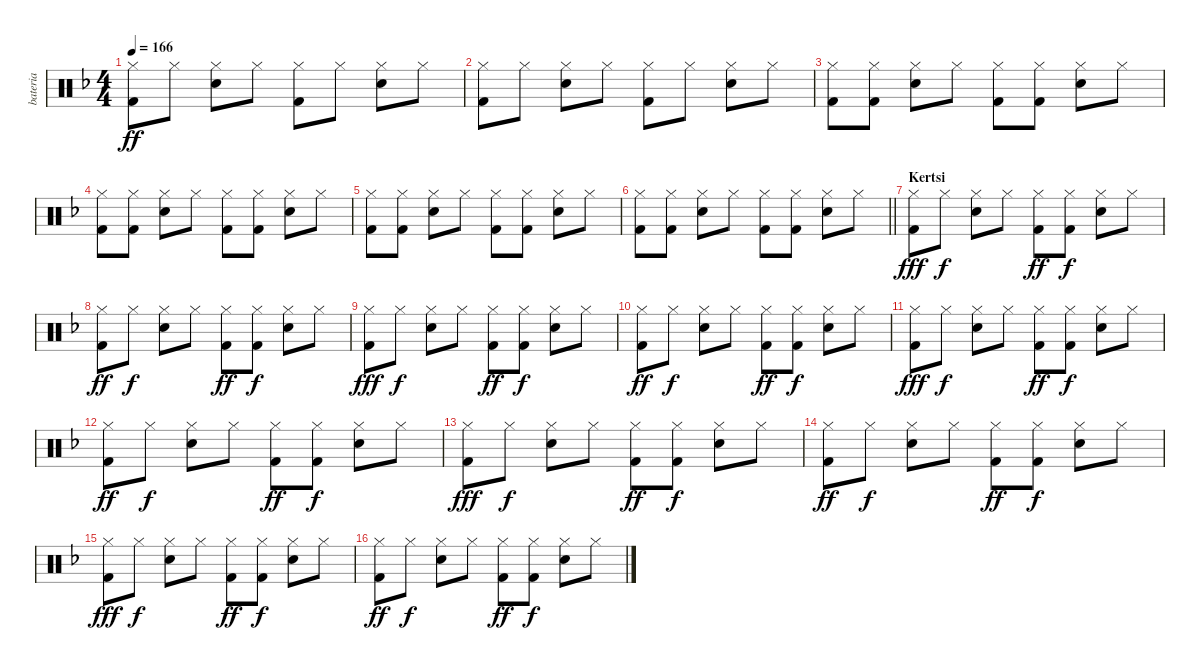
\track ("bateria" "bateria") {instrument percussion}
\staff {score}
\articulation defaults
\ts (4 4)
\tempo 166
\clef neutral
\ks f
("Hi-Hat (closed)" "Kick (hit) 2").8{dy ff} "Hi-Hat (closed)".8 ("Hi-Hat (closed)" "Electric Snare (hit)").8 "Hi-Hat (closed)".8 ("Hi-Hat (closed)" "Kick (hit) 2").8 "Hi-Hat (closed)".8 ("Hi-Hat (closed)" "Electric Snare (hit)").8 "Hi-Hat (closed)".8 |
("Hi-Hat (closed)" "Kick (hit) 2").8 "Hi-Hat (closed)".8 ("Hi-Hat (closed)" "Electric Snare (hit)").8 "Hi-Hat (closed)".8 ("Hi-Hat (closed)" "Kick (hit) 2").8 "Hi-Hat (closed)".8 ("Hi-Hat (closed)" "Electric Snare (hit)").8 "Hi-Hat (closed)".8 |
("Hi-Hat (closed)" "Kick (hit) 2").8 ("Hi-Hat (closed)" "Kick (hit) 2").8 ("Hi-Hat (closed)" "Electric Snare (hit)").8 "Hi-Hat (closed)".8 ("Hi-Hat (closed)" "Kick (hit) 2").8 ("Hi-Hat (closed)" "Kick (hit) 2").8 ("Hi-Hat (closed)" "Electric Snare (hit)").8 "Hi-Hat (closed)".8 |
("Hi-Hat (closed)" "Kick (hit) 2").8 ("Hi-Hat (closed)" "Kick (hit) 2").8 ("Hi-Hat (closed)" "Electric Snare (hit)").8 "Hi-Hat (closed)".8 ("Hi-Hat (closed)" "Kick (hit) 2").8 ("Hi-Hat (closed)" "Kick (hit) 2").8 ("Hi-Hat (closed)" "Electric Snare (hit)").8 "Hi-Hat (closed)".8 |
("Hi-Hat (closed)" "Kick (hit) 2").8 ("Hi-Hat (closed)" "Kick (hit) 2").8 ("Hi-Hat (closed)" "Electric Snare (hit)").8 "Hi-Hat (closed)".8 ("Hi-Hat (closed)" "Kick (hit) 2").8 ("Hi-Hat (closed)" "Kick (hit) 2").8 ("Hi-Hat (closed)" "Electric Snare (hit)").8 "Hi-Hat (closed)".8 |
\barLineRight lightlight
("Hi-Hat (closed)" "Kick (hit) 2").8 ("Hi-Hat (closed)" "Kick (hit) 2").8 ("Hi-Hat (closed)" "Electric Snare (hit)").8 "Hi-Hat (closed)".8 ("Hi-Hat (closed)" "Kick (hit) 2").8 ("Hi-Hat (closed)" "Kick (hit) 2").8 ("Hi-Hat (closed)" "Electric Snare (hit)").8 "Hi-Hat (closed)".8 |
\section ("" "Kertsi")
("Hi-Hat (closed)" "Kick (hit) 2").8{dy fff} "Hi-Hat (closed)".8{dy f} ("Hi-Hat (closed)" "Electric Snare (hit)").8 "Hi-Hat (closed)".8 ("Hi-Hat (closed)" "Kick (hit) 2").8{dy ff} ("Kick (hit) 2" "Hi-Hat (closed)").8{dy f} ("Hi-Hat (closed)" "Electric Snare (hit)").8 "Hi-Hat (closed)".8 |
("Hi-Hat (closed)" "Kick (hit) 2").8{dy ff} "Hi-Hat (closed)".8{dy f} ("Hi-Hat (closed)" "Electric Snare (hit)").8 "Hi-Hat (closed)".8 ("Hi-Hat (closed)" "Kick (hit) 2").8{dy ff} ("Hi-Hat (closed)" "Kick (hit) 2").8{dy f} ("Hi-Hat (closed)" "Electric Snare (hit)").8 "Hi-Hat (closed)".8 |
("Hi-Hat (closed)" "Kick (hit) 2").8{dy fff} "Hi-Hat (closed)".8{dy f} ("Hi-Hat (closed)" "Electric Snare (hit)").8 "Hi-Hat (closed)".8 ("Hi-Hat (closed)" "Kick (hit) 2").8{dy ff} ("Kick (hit) 2" "Hi-Hat (closed)").8{dy f} ("Hi-Hat (closed)" "Electric Snare (hit)").8 "Hi-Hat (closed)".8 |
("Hi-Hat (closed)" "Kick (hit) 2").8{dy ff} "Hi-Hat (closed)".8{dy f} ("Hi-Hat (closed)" "Electric Snare (hit)").8 "Hi-Hat (closed)".8 ("Hi-Hat (closed)" "Kick (hit) 2").8{dy ff} ("Hi-Hat (closed)" "Kick (hit) 2").8{dy f} ("Hi-Hat (closed)" "Electric Snare (hit)").8 "Hi-Hat (closed)".8 |
("Hi-Hat (closed)" "Kick (hit) 2").8{dy fff} "Hi-Hat (closed)".8{dy f} ("Hi-Hat (closed)" "Electric Snare (hit)").8 "Hi-Hat (closed)".8 ("Hi-Hat (closed)" "Kick (hit) 2").8{dy ff} ("Kick (hit) 2" "Hi-Hat (closed)").8{dy f} ("Hi-Hat (closed)" "Electric Snare (hit)").8 "Hi-Hat (closed)".8 |
("Hi-Hat (closed)" "Kick (hit) 2").8{dy ff} "Hi-Hat (closed)".8{dy f} ("Hi-Hat (closed)" "Electric Snare (hit)").8 "Hi-Hat (closed)".8 ("Hi-Hat (closed)" "Kick (hit) 2").8{dy ff} ("Hi-Hat (closed)" "Kick (hit) 2").8{dy f} ("Hi-Hat (closed)" "Electric Snare (hit)").8 "Hi-Hat (closed)".8 |
("Hi-Hat (closed)" "Kick (hit) 2").8{dy fff} "Hi-Hat (closed)".8{dy f} ("Hi-Hat (closed)" "Electric Snare (hit)").8 "Hi-Hat (closed)".8 ("Hi-Hat (closed)" "Kick (hit) 2").8{dy ff} ("Kick (hit) 2" "Hi-Hat (closed)").8{dy f} ("Hi-Hat (closed)" "Electric Snare (hit)").8 "Hi-Hat (closed)".8 |
("Hi-Hat (closed)" "Kick (hit) 2").8{dy ff} "Hi-Hat (closed)".8{dy f} ("Hi-Hat (closed)" "Electric Snare (hit)").8 "Hi-Hat (closed)".8 ("Hi-Hat (closed)" "Kick (hit) 2").8{dy ff} ("Hi-Hat (closed)" "Kick (hit) 2").8{dy f} ("Hi-Hat (closed)" "Electric Snare (hit)").8 "Hi-Hat (closed)".8 |
("Hi-Hat (closed)" "Kick (hit) 2").8{dy fff} "Hi-Hat (closed)".8{dy f} ("Hi-Hat (closed)" "Electric Snare (hit)").8 "Hi-Hat (closed)".8 ("Hi-Hat (closed)" "Kick (hit) 2").8{dy ff} ("Kick (hit) 2" "Hi-Hat (closed)").8{dy f} ("Hi-Hat (closed)" "Electric Snare (hit)").8 "Hi-Hat (closed)".8 |
("Hi-Hat (closed)" "Kick (hit) 2").8{dy ff} "Hi-Hat (closed)".8{dy f} ("Hi-Hat (closed)" "Electric Snare (hit)").8 "Hi-Hat (closed)".8 ("Hi-Hat (closed)" "Kick (hit) 2").8{dy ff} ("Hi-Hat (closed)" "Kick (hit) 2").8{dy f} ("Hi-Hat (closed)" "Electric Snare (hit)").8 "Hi-Hat (closed)".8
